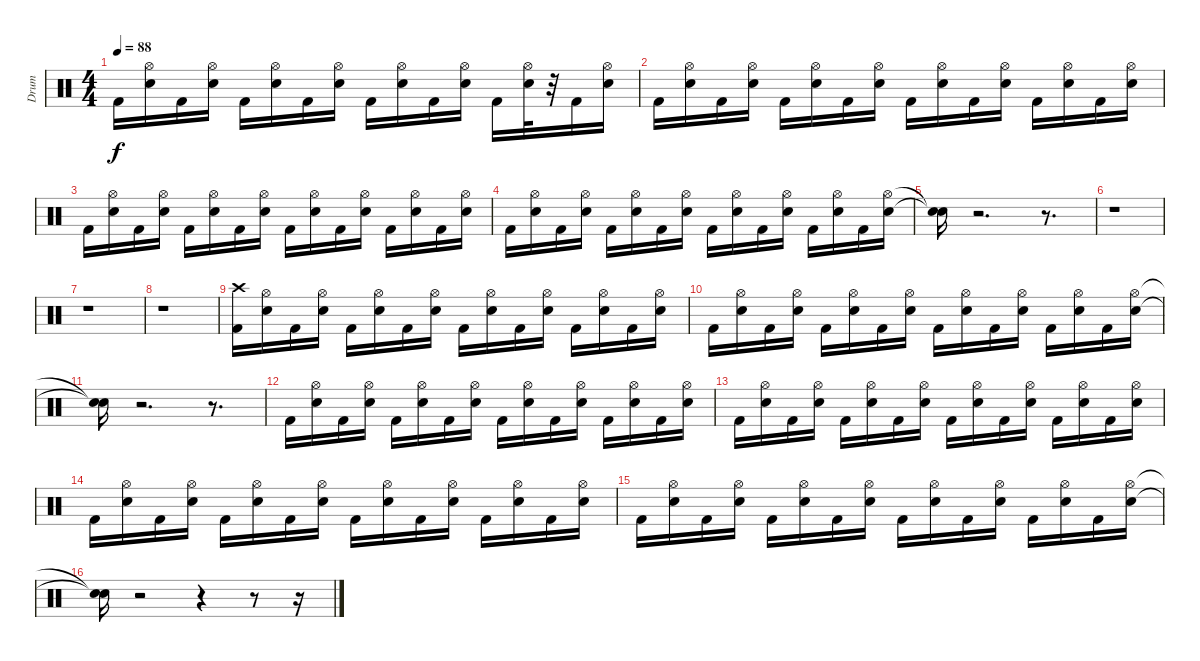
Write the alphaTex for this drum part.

\track ("Drum" "Drum") {instrument percussion}
\staff {score}
\articulation defaults
\ts (4 4)
\tempo 88
\clef neutral
\ks c "Kick (hit) 2".16{dy f}
("Hi-Hat (open)" "Snare (hit) 2").16 "Kick (hit) 2".16 ("Snare (hit) 2" "Hi-Hat (open)").16 "Kick (hit) 2".16 ("Snare (hit) 2" "Hi-Hat (open)").16 "Kick (hit) 2".16 ("Hi-Hat (open)" "Snare (hit) 2").16 "Kick (hit) 2".16 ("Hi-Hat (open)" "Snare (hit) 2").16 "Kick (hit) 2".16 ("Snare (hit) 2" "Hi-Hat (open)").16 "Kick (hit) 2".16 ("Snare (hit) 2" "Hi-Hat (open)").32 r.32 "Kick (hit) 2".16 ("Hi-Hat (open)" "Snare (hit) 2").16 |
"Kick (hit) 2".16 ("Hi-Hat (open)" "Snare (hit) 2").16 "Kick (hit) 2".16 ("Snare (hit) 2" "Hi-Hat (open)").16 "Kick (hit) 2".16 ("Hi-Hat (open)" "Snare (hit) 2").16 "Kick (hit) 2".16 ("Hi-Hat (open)" "Snare (hit) 2").16 "Kick (hit) 2".16 ("Hi-Hat (open)" "Snare (hit) 2").16 "Kick (hit) 2".16 ("Snare (hit) 2" "Hi-Hat (open)").16 "Kick (hit) 2".16 ("Hi-Hat (open)" "Snare (hit) 2").16 "Kick (hit) 2".16 ("Hi-Hat (open)" "Snare (hit) 2").16 |
"Kick (hit) 2".16 ("Hi-Hat (open)" "Snare (hit) 2").16 "Kick (hit) 2".16 ("Hi-Hat (open)" "Snare (hit) 2").16 "Kick (hit) 2".16 ("Hi-Hat (open)" "Snare (hit) 2").16 "Kick (hit) 2".16 ("Hi-Hat (open)" "Snare (hit) 2").16 "Kick (hit) 2".16 ("Hi-Hat (open)" "Snare (hit) 2").16 "Kick (hit) 2".16 ("Snare (hit) 2" "Hi-Hat (open)").16 "Kick (hit) 2".16 ("Snare (hit) 2" "Hi-Hat (open)").16 "Kick (hit) 2".16 ("Hi-Hat (open)" "Snare (hit) 2").16 |
"Kick (hit) 2".16 ("Hi-Hat (open)" "Snare (hit) 2").16 "Kick (hit) 2".16 ("Hi-Hat (open)" "Snare (hit) 2").16 "Kick (hit) 2".16 ("Hi-Hat (open)" "Snare (hit) 2").16 "Kick (hit) 2".16 ("Hi-Hat (open)" "Snare (hit) 2").16 "Kick (hit) 2".16 ("Hi-Hat (open)" "Snare (hit) 2").16 "Kick (hit) 2".16 ("Hi-Hat (open)" "Snare (hit) 2").16 "Kick (hit) 2".16 ("Snare (hit) 2" "Hi-Hat (open)").16 "Kick (hit) 2".16 ("Hi-Hat (open)" "Snare (hit) 2").16 |
("Snare (hit)"{t} "Snare (hit)"{t}).16 r.2{d} r.8{d} |
r.1 |
r.1 |
r.1 |
("Crash high (hit)" "Kick (hit) 2").16 ("Hi-Hat (open)" "Snare (hit) 2").16 "Kick (hit) 2".16 ("Hi-Hat (open)" "Snare (hit) 2").16 "Kick (hit) 2".16 ("Hi-Hat (open)" "Snare (hit) 2").16 "Kick (hit) 2".16 ("Hi-Hat (open)" "Snare (hit) 2").16 "Kick (hit) 2".16 ("Hi-Hat (open)" "Snare (hit) 2").16 "Kick (hit) 2".16 ("Snare (hit) 2" "Hi-Hat (open)").16 "Kick (hit) 2".16 ("Hi-Hat (open)" "Snare (hit) 2").16 "Kick (hit) 2".16 ("Hi-Hat (open)" "Snare (hit) 2").16 |
"Kick (hit) 2".16 ("Hi-Hat (open)" "Snare (hit) 2").16 "Kick (hit) 2".16 ("Hi-Hat (open)" "Snare (hit) 2").16 "Kick (hit) 2".16 ("Hi-Hat (open)" "Snare (hit) 2").16 "Kick (hit) 2".16 ("Hi-Hat (open)" "Snare (hit) 2").16 "Kick (hit) 2".16 ("Snare (hit) 2" "Hi-Hat (open)").16 "Kick (hit) 2".16 ("Hi-Hat (open)" "Snare (hit) 2").16 "Kick (hit) 2".16 ("Hi-Hat (open)" "Snare (hit) 2").16 "Kick (hit) 2".16 ("Hi-Hat (open)" "Snare (hit) 2").16 |
("Snare (hit)"{t} "Snare (hit)"{t}).16 r.2{d} r.8{d} |
"Kick (hit) 2".16 ("Hi-Hat (open)" "Snare (hit) 2").16 "Kick (hit) 2".16 ("Snare (hit) 2" "Hi-Hat (open)").16 "Kick (hit) 2".16 ("Snare (hit) 2" "Hi-Hat (open)").16 "Kick (hit) 2".16 ("Hi-Hat (open)" "Snare (hit) 2").16 "Kick (hit) 2".16 ("Hi-Hat (open)" "Snare (hit) 2").16 "Kick (hit) 2".16 ("Snare (hit) 2" "Hi-Hat (open)").16 "Kick (hit) 2".16 ("Snare (hit) 2" "Hi-Hat (open)").16 "Kick (hit) 2".16 ("Snare (hit) 2" "Hi-Hat (open)").16 |
"Kick (hit) 2".16 ("Hi-Hat (open)" "Snare (hit) 2").16 "Kick (hit) 2".16 ("Snare (hit) 2" "Hi-Hat (open)").16 "Kick (hit) 2".16 ("Hi-Hat (open)" "Snare (hit) 2").16 "Kick (hit) 2".16 ("Hi-Hat (open)" "Snare (hit) 2").16 "Kick (hit) 2".16 ("Hi-Hat (open)" "Snare (hit) 2").16 "Kick (hit) 2".16 ("Snare (hit) 2" "Hi-Hat (open)").16 "Kick (hit) 2".16 ("Hi-Hat (open)" "Snare (hit) 2").16 "Kick (hit) 2".16 ("Snare (hit) 2" "Hi-Hat (open)").16 |
"Kick (hit) 2".16 ("Hi-Hat (open)" "Snare (hit) 2").16 "Kick (hit) 2".16 ("Snare (hit) 2" "Hi-Hat (open)").16 "Kick (hit) 2".16 ("Snare (hit) 2" "Hi-Hat (open)").16 "Kick (hit) 2".16 ("Snare (hit) 2" "Hi-Hat (open)").16 "Kick (hit) 2".16 ("Snare (hit) 2" "Hi-Hat (open)").16 "Kick (hit) 2".16 ("Snare (hit) 2" "Hi-Hat (open)").16 "Kick (hit) 2".16 ("Snare (hit) 2" "Hi-Hat (open)").16 "Kick (hit) 2".16 ("Snare (hit) 2" "Hi-Hat (open)").16 |
"Kick (hit) 2".16 ("Hi-Hat (open)" "Snare (hit) 2").16 "Kick (hit) 2".16 ("Snare (hit) 2" "Hi-Hat (open)").16 "Kick (hit) 2".16 ("Snare (hit) 2" "Hi-Hat (open)").16 "Kick (hit) 2".16 ("Hi-Hat (open)" "Snare (hit) 2").16 "Kick (hit) 2".16 ("Hi-Hat (open)" "Snare (hit) 2").16 "Kick (hit) 2".16 ("Hi-Hat (open)" "Snare (hit) 2").16 "Kick (hit) 2".16 ("Snare (hit) 2" "Hi-Hat (open)").16 "Kick (hit) 2".16 ("Hi-Hat (open)" "Snare (hit) 2").16 |
("Snare (hit)"{t} "Snare (hit)"{t}).16 r.2 r.4 r.8 r.16
